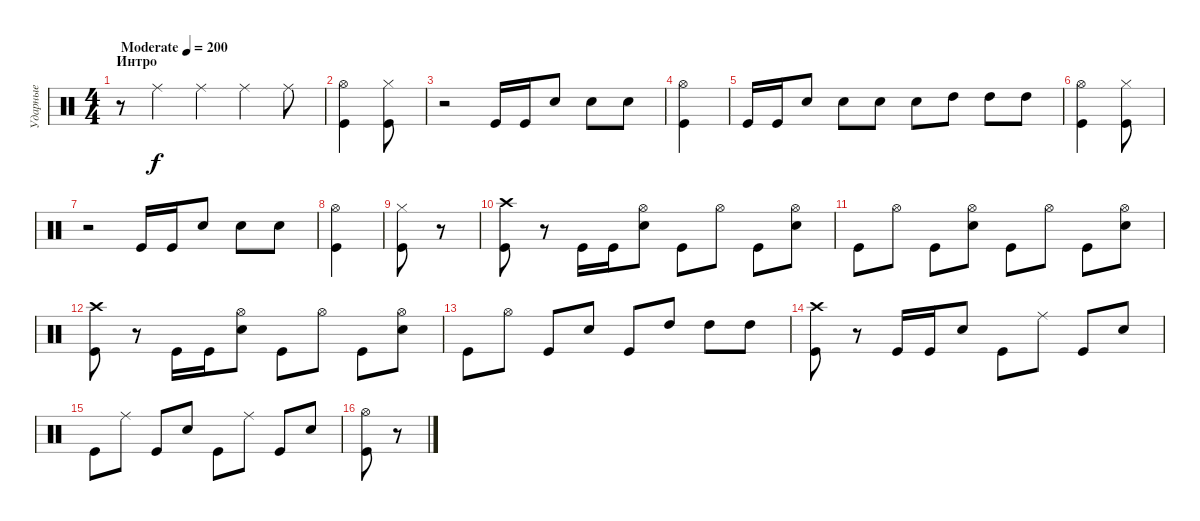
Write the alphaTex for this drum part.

\track ("Ударные" "Ударные") {instrument percussion}
\staff {score}
\articulation defaults
\ts (4 4)
\section ("" "Интро")
\tempo (200 "Moderate")
\clef neutral
\ks c
r.8{dy f} "Ride (middle)".4 "Ride (middle)".4 "Ride (middle)".4 "Ride (middle)".8 |
("Hi-Hat (open)" "Kick (hit)").4 ("Hi-Hat (closed)" "Kick (hit)").8 |
r.2 "Kick (hit)".16 "Kick (hit)".16 "Snare (hit) 2".8 "Snare (hit) 2".8 "Snare (hit) 2".8 |
("Hi-Hat (open)" "Kick (hit)").4 |
"Kick (hit)".16 "Kick (hit)".16 "Snare (hit) 2".8 "Snare (hit) 2".8 "Snare (hit) 2".8 "Snare (hit) 2".8 "High Tom (hit)".8 "High Tom (hit)".8 "High Tom (hit)".8 |
("Hi-Hat (open)" "Kick (hit)").4 ("Hi-Hat (closed)" "Kick (hit)").8 |
r.2 "Kick (hit)".16 "Kick (hit)".16 "Snare (hit) 2".8 "Snare (hit) 2".8 "Snare (hit) 2".8 |
("Hi-Hat (open)" "Kick (hit)").4 |
("Hi-Hat (closed)" "Kick (hit)").8 r.8 |
("Crash high (hit)" "Kick (hit)").8 r.8 "Kick (hit)".16 "Kick (hit)".16 ("Hi-Hat (open)" "Snare (hit) 2").8 "Kick (hit)".8 "Hi-Hat (open)".8 "Kick (hit)".8 ("Hi-Hat (open)" "Snare (hit) 2").8 |
"Kick (hit)".8 "Hi-Hat (open)".8 "Kick (hit)".8 ("Hi-Hat (open)" "Snare (hit) 2").8 "Kick (hit)".8 "Hi-Hat (open)".8 "Kick (hit)".8 ("Hi-Hat (open)" "Snare (hit) 2").8 |
("Crash high (hit)" "Kick (hit)").8 r.8 "Kick (hit)".16 "Kick (hit)".16 ("Hi-Hat (open)" "Snare (hit) 2").8 "Kick (hit)".8 "Hi-Hat (open)".8 "Kick (hit)".8 ("Hi-Hat (open)" "Snare (hit) 2").8 |
"Kick (hit)".8 "Hi-Hat (open)".8 "Kick (hit)".8 "Snare (hit) 2".8 "Kick (hit)".8 "High Tom (hit)".8 "High Tom (hit)".8 "High Tom (hit)".8 |
("Crash high (hit)" "Kick (hit)").8 r.8 "Kick (hit)".16 "Kick (hit)".16 "Snare (hit) 2".8 "Kick (hit)".8 "Ride (middle)".8 "Kick (hit)".8 "Snare (hit) 2".8 |
"Kick (hit)".8 "Ride (middle)".8 "Kick (hit)".8 "Snare (hit) 2".8 "Kick (hit)".8 "Ride (middle)".8 "Kick (hit)".8 "Snare (hit) 2".8 |
("Hi-Hat (open)" "Kick (hit)").8 r.8
